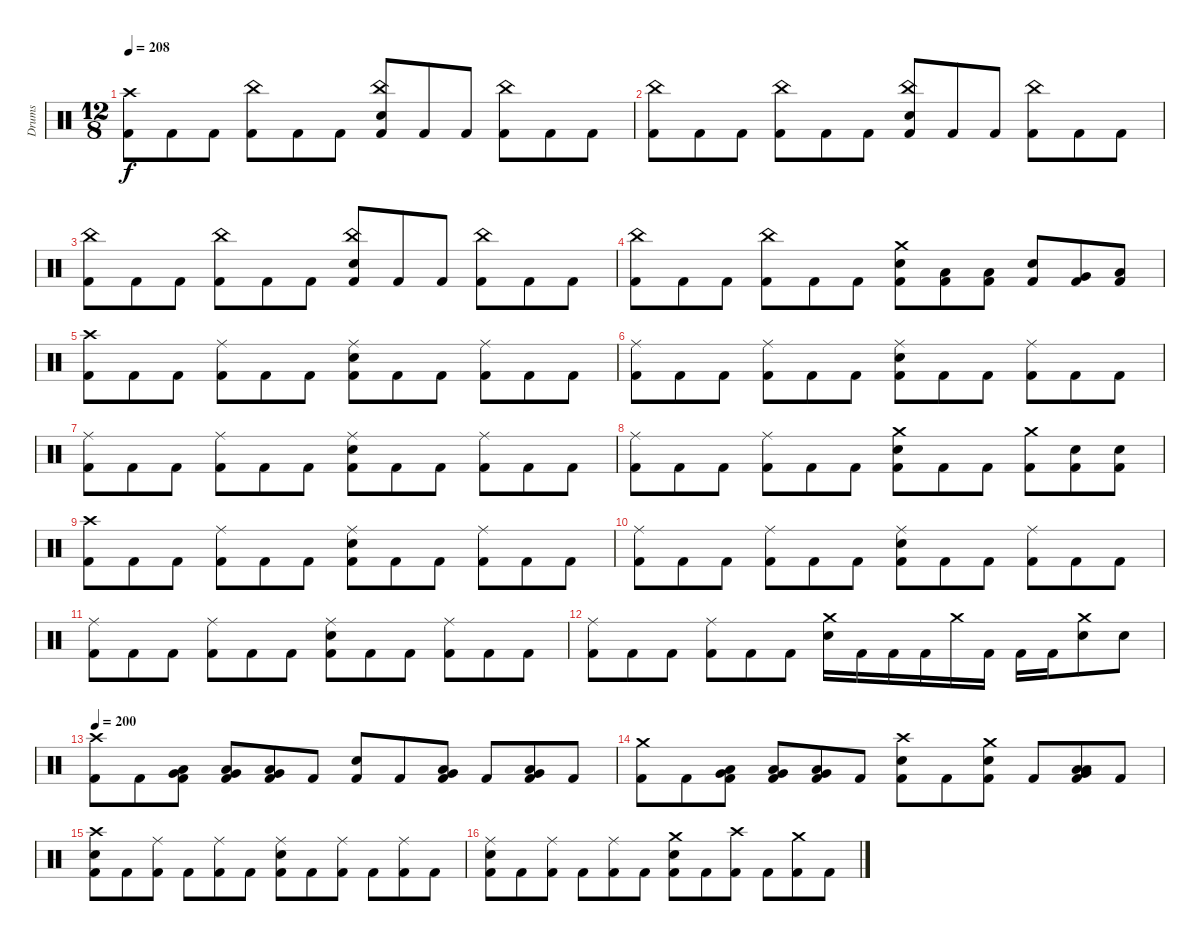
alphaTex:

\track ("Drums" "Drums") {instrument percussion}
\staff {score}
\articulation defaults
\ts (12 8)
\tempo 208
\clef neutral
\ks c
("Crash high (hit)" "Kick (hit) 2").8{dy f} "Kick (hit) 2".8 "Kick (hit) 2".8 ("China (hit)" "Kick (hit) 2").8 "Kick (hit) 2".8 "Kick (hit) 2".8 ("China (hit)" "Electric Snare (hit)" "Kick (hit) 2").8 "Kick (hit) 2".8 "Kick (hit) 2".8 ("China (hit)" "Kick (hit) 2").8 "Kick (hit) 2".8 "Kick (hit) 2".8 |
("China (hit)" "Kick (hit) 2").8 "Kick (hit) 2".8 "Kick (hit) 2".8 ("China (hit)" "Kick (hit) 2").8 "Kick (hit) 2".8 "Kick (hit) 2".8 ("China (hit)" "Electric Snare (hit)" "Kick (hit) 2").8 "Kick (hit) 2".8 "Kick (hit) 2".8 ("China (hit)" "Kick (hit) 2").8 "Kick (hit) 2".8 "Kick (hit) 2".8 |
("China (hit)" "Kick (hit) 2").8 "Kick (hit) 2".8 "Kick (hit) 2".8 ("China (hit)" "Kick (hit) 2").8 "Kick (hit) 2".8 "Kick (hit) 2".8 ("China (hit)" "Electric Snare (hit)" "Kick (hit) 2").8 "Kick (hit) 2".8 "Kick (hit) 2".8 ("China (hit)" "Kick (hit) 2").8 "Kick (hit) 2".8 "Kick (hit) 2".8 |
("China (hit)" "Kick (hit) 2").8 "Kick (hit) 2".8 "Kick (hit) 2".8 ("China (hit)" "Kick (hit) 2").8 "Kick (hit) 2".8 "Kick (hit) 2".8 ("Crash medium (hit)" "Electric Snare (hit)" "Kick (hit) 2").8 ("Low Tom (hit)" "Kick (hit) 2").8 ("Low Tom (hit)" "Kick (hit) 2").8 ("Electric Snare (hit)" "Kick (hit) 2").8 ("Very Low Tom (hit)" "Kick (hit) 2").8 ("Low Floor Tom (hit)" "Kick (hit) 2").8 |
("Crash high (hit)" "Kick (hit) 2").8 "Kick (hit) 2".8 "Kick (hit) 2".8 ("Ride (middle)" "Kick (hit) 2").8 "Kick (hit) 2".8 "Kick (hit) 2".8 ("Ride (middle)" "Electric Snare (hit)" "Kick (hit) 2").8 "Kick (hit) 2".8 "Kick (hit) 2".8 ("Ride (middle)" "Kick (hit) 2").8 "Kick (hit) 2".8 "Kick (hit) 2".8 |
("Ride (middle)" "Kick (hit) 2").8 "Kick (hit) 2".8 "Kick (hit) 2".8 ("Ride (middle)" "Kick (hit) 2").8 "Kick (hit) 2".8 "Kick (hit) 2".8 ("Ride (middle)" "Electric Snare (hit)" "Kick (hit) 2").8 "Kick (hit) 2".8 "Kick (hit) 2".8 ("Ride (middle)" "Kick (hit) 2").8 "Kick (hit) 2".8 "Kick (hit) 2".8 |
("Ride (middle)" "Kick (hit) 2").8 "Kick (hit) 2".8 "Kick (hit) 2".8 ("Ride (middle)" "Kick (hit) 2").8 "Kick (hit) 2".8 "Kick (hit) 2".8 ("Ride (middle)" "Electric Snare (hit)" "Kick (hit) 2").8 "Kick (hit) 2".8 "Kick (hit) 2".8 ("Ride (middle)" "Kick (hit) 2").8 "Kick (hit) 2".8 "Kick (hit) 2".8 |
("Ride (middle)" "Kick (hit) 2").8 "Kick (hit) 2".8 "Kick (hit) 2".8 ("Ride (middle)" "Kick (hit) 2").8 "Kick (hit) 2".8 "Kick (hit) 2".8 ("Crash medium (hit)" "Electric Snare (hit)" "Kick (hit) 2").8 "Kick (hit) 2".8 "Kick (hit) 2".8 ("Crash medium (hit)" "Kick (hit) 2").8 ("Electric Snare (hit)" "Kick (hit) 2").8 ("Electric Snare (hit)" "Kick (hit) 2").8 |
("Crash high (hit)" "Kick (hit) 2").8 "Kick (hit) 2".8 "Kick (hit) 2".8 ("Ride (middle)" "Kick (hit) 2").8 "Kick (hit) 2".8 "Kick (hit) 2".8 ("Ride (middle)" "Electric Snare (hit)" "Kick (hit) 2").8 "Kick (hit) 2".8 "Kick (hit) 2".8 ("Ride (middle)" "Kick (hit) 2").8 "Kick (hit) 2".8 "Kick (hit) 2".8 |
("Ride (middle)" "Kick (hit) 2").8 "Kick (hit) 2".8 "Kick (hit) 2".8 ("Ride (middle)" "Kick (hit) 2").8 "Kick (hit) 2".8 "Kick (hit) 2".8 ("Ride (middle)" "Electric Snare (hit)" "Kick (hit) 2").8 "Kick (hit) 2".8 "Kick (hit) 2".8 ("Ride (middle)" "Kick (hit) 2").8 "Kick (hit) 2".8 "Kick (hit) 2".8 |
("Ride (middle)" "Kick (hit) 2").8 "Kick (hit) 2".8 "Kick (hit) 2".8 ("Ride (middle)" "Kick (hit) 2").8 "Kick (hit) 2".8 "Kick (hit) 2".8 ("Ride (middle)" "Electric Snare (hit)" "Kick (hit) 2").8 "Kick (hit) 2".8 "Kick (hit) 2".8 ("Ride (middle)" "Kick (hit) 2").8 "Kick (hit) 2".8 "Kick (hit) 2".8 |
("Ride (middle)" "Kick (hit) 2").8 "Kick (hit) 2".8 "Kick (hit) 2".8 ("Ride (middle)" "Kick (hit) 2").8 "Kick (hit) 2".8 "Kick (hit) 2".8 ("Crash medium (hit)" "Electric Snare (hit)").16 "Kick (hit) 2".16 "Kick (hit) 2".16 "Kick (hit) 2".16 "Crash medium (hit)".16 "Kick (hit) 2".16 "Kick (hit) 2".16 "Kick (hit) 2".16 ("Crash medium (hit)" "Electric Snare (hit)").8 "Electric Snare (hit)".8 |
\tempo 200
("Crash high (hit)" "Kick (hit) 2").8 "Kick (hit) 2".8 ("Low Tom (hit)" "Very Low Tom (hit)" "Kick (hit) 2").8 ("Low Floor Tom (hit)" "Very Low Tom (hit)" "Kick (hit) 2").8 ("Low Tom (hit)" "Very Low Tom (hit)" "Kick (hit) 2").8 "Kick (hit) 2".8 ("Electric Snare (hit)" "Kick (hit) 2").8 "Kick (hit) 2".8 ("Very Low Tom (hit)" "Low Tom (hit)" "Kick (hit) 2").8 "Kick (hit) 2".8 ("Very Low Tom (hit)" "Low Floor Tom (hit)" "Kick (hit) 2").8 "Kick (hit) 2".8 |
("Crash medium (hit)" "Kick (hit) 2").8 "Kick (hit) 2".8 ("Low Tom (hit)" "Very Low Tom (hit)" "Kick (hit) 2").8 ("Low Floor Tom (hit)" "Very Low Tom (hit)" "Kick (hit) 2").8 ("Low Tom (hit)" "Very Low Tom (hit)" "Kick (hit) 2").8 "Kick (hit) 2".8 ("Crash high (hit)" "Electric Snare (hit)" "Kick (hit) 2").8 "Kick (hit) 2".8 ("Crash medium (hit)" "Electric Snare (hit)" "Kick (hit) 2").8 "Kick (hit) 2".8 ("Low Tom (hit)" "Very Low Tom (hit)" "Low Floor Tom (hit)" "Kick (hit) 2").8 "Kick (hit) 2".8 |
("Crash high (hit)" "Electric Snare (hit)" "Kick (hit) 2").8 "Kick (hit) 2".8 ("Ride (middle)" "Kick (hit) 2").8 "Kick (hit) 2".8 ("Ride (middle)" "Kick (hit) 2").8 "Kick (hit) 2".8 ("Ride (middle)" "Electric Snare (hit)" "Kick (hit) 2").8 "Kick (hit) 2".8 ("Ride (middle)" "Kick (hit) 2").8 "Kick (hit) 2".8 ("Ride (middle)" "Kick (hit) 2").8 "Kick (hit) 2".8 |
("Ride (middle)" "Electric Snare (hit)" "Kick (hit) 2").8 "Kick (hit) 2".8 ("Ride (middle)" "Kick (hit) 2").8 "Kick (hit) 2".8 ("Ride (middle)" "Kick (hit) 2").8 "Kick (hit) 2".8 ("Crash medium (hit)" "Electric Snare (hit)" "Kick (hit) 2").8 "Kick (hit) 2".8 ("Crash high (hit)" "Kick (hit) 2").8 "Kick (hit) 2".8 ("Crash medium (hit)" "Kick (hit) 2").8 "Kick (hit) 2".8
